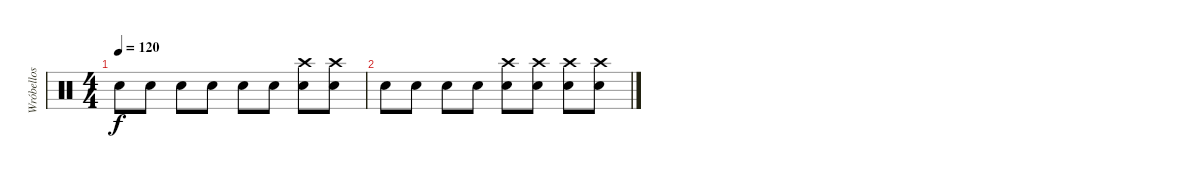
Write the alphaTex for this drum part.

\track ("Wróbellos " "Wróbellos ") {instrument percussion}
\staff {score}
\articulation defaults
\ts (4 4)
\tempo 120
\clef neutral
\ks c "Electric Snare (hit)".8{dy f} "Electric Snare (hit)".8 "Electric Snare (hit)".8 "Electric Snare (hit)".8 "Electric Snare (hit)".8 "Electric Snare (hit)".8
("Electric Snare (hit)" "Crash high (hit)").8 ("Electric Snare (hit)" "Crash high (hit)").8 |
"Electric Snare (hit)".8 "Electric Snare (hit)".8 "Electric Snare (hit)".8 "Electric Snare (hit)".8 ("Electric Snare (hit)" "Crash high (hit)").8 ("Electric Snare (hit)" "Crash high (hit)").8 ("Electric Snare (hit)" "Crash high (hit)").8 ("Electric Snare (hit)" "Crash high (hit)").8
